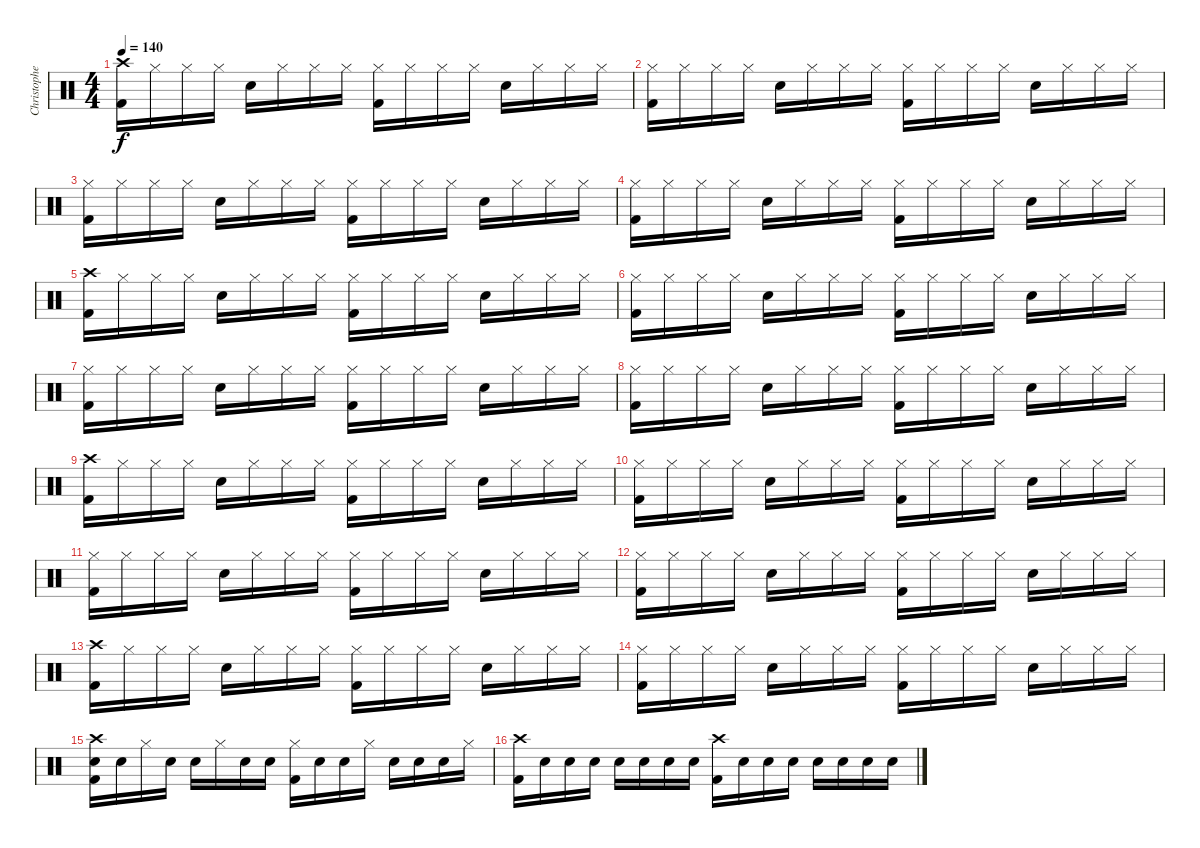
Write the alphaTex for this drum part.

\track ("Christopher Lawrence " "Christophe") {instrument percussion}
\staff {score}
\articulation defaults
\ts (4 4)
\tempo 140
\clef neutral
\ks c
("Crash high (hit)" "Kick (hit) 2").16{dy f} "Hi-Hat (closed)".16 "Hi-Hat (closed)".16 "Hi-Hat (closed)".16 "Snare (hit) 2".16 "Hi-Hat (closed)".16 "Hi-Hat (closed)".16 "Hi-Hat (closed)".16 ("Hi-Hat (closed)" "Kick (hit) 2").16 "Hi-Hat (closed)".16 "Hi-Hat (closed)".16 "Hi-Hat (closed)".16 "Snare (hit) 2".16 "Hi-Hat (closed)".16 "Hi-Hat (closed)".16 "Hi-Hat (closed)".16 |
("Hi-Hat (closed)" "Kick (hit) 2").16 "Hi-Hat (closed)".16 "Hi-Hat (closed)".16 "Hi-Hat (closed)".16 "Snare (hit) 2".16 "Hi-Hat (closed)".16 "Hi-Hat (closed)".16 "Hi-Hat (closed)".16 ("Hi-Hat (closed)" "Kick (hit) 2").16 "Hi-Hat (closed)".16 "Hi-Hat (closed)".16 "Hi-Hat (closed)".16 "Snare (hit) 2".16 "Hi-Hat (closed)".16 "Hi-Hat (closed)".16 "Hi-Hat (closed)".16 |
("Hi-Hat (closed)" "Kick (hit) 2").16 "Hi-Hat (closed)".16 "Hi-Hat (closed)".16 "Hi-Hat (closed)".16 "Snare (hit) 2".16 "Hi-Hat (closed)".16 "Hi-Hat (closed)".16 "Hi-Hat (closed)".16 ("Hi-Hat (closed)" "Kick (hit) 2").16 "Hi-Hat (closed)".16 "Hi-Hat (closed)".16 "Hi-Hat (closed)".16 "Snare (hit) 2".16 "Hi-Hat (closed)".16 "Hi-Hat (closed)".16 "Hi-Hat (closed)".16 |
("Hi-Hat (closed)" "Kick (hit) 2").16 "Hi-Hat (closed)".16 "Hi-Hat (closed)".16 "Hi-Hat (closed)".16 "Snare (hit) 2".16 "Hi-Hat (closed)".16 "Hi-Hat (closed)".16 "Hi-Hat (closed)".16 ("Hi-Hat (closed)" "Kick (hit) 2").16 "Hi-Hat (closed)".16 "Hi-Hat (closed)".16 "Hi-Hat (closed)".16 "Snare (hit) 2".16 "Hi-Hat (closed)".16 "Hi-Hat (closed)".16 "Hi-Hat (closed)".16 |
("Crash high (hit)" "Kick (hit) 2").16 "Hi-Hat (closed)".16 "Hi-Hat (closed)".16 "Hi-Hat (closed)".16 "Snare (hit) 2".16 "Hi-Hat (closed)".16 "Hi-Hat (closed)".16 "Hi-Hat (closed)".16 ("Hi-Hat (closed)" "Kick (hit) 2").16 "Hi-Hat (closed)".16 "Hi-Hat (closed)".16 "Hi-Hat (closed)".16 "Snare (hit) 2".16 "Hi-Hat (closed)".16 "Hi-Hat (closed)".16 "Hi-Hat (closed)".16 |
("Hi-Hat (closed)" "Kick (hit) 2").16 "Hi-Hat (closed)".16 "Hi-Hat (closed)".16 "Hi-Hat (closed)".16 "Snare (hit) 2".16 "Hi-Hat (closed)".16 "Hi-Hat (closed)".16 "Hi-Hat (closed)".16 ("Hi-Hat (closed)" "Kick (hit) 2").16 "Hi-Hat (closed)".16 "Hi-Hat (closed)".16 "Hi-Hat (closed)".16 "Snare (hit) 2".16 "Hi-Hat (closed)".16 "Hi-Hat (closed)".16 "Hi-Hat (closed)".16 |
("Hi-Hat (closed)" "Kick (hit) 2").16 "Hi-Hat (closed)".16 "Hi-Hat (closed)".16 "Hi-Hat (closed)".16 "Snare (hit) 2".16 "Hi-Hat (closed)".16 "Hi-Hat (closed)".16 "Hi-Hat (closed)".16 ("Hi-Hat (closed)" "Kick (hit) 2").16 "Hi-Hat (closed)".16 "Hi-Hat (closed)".16 "Hi-Hat (closed)".16 "Snare (hit) 2".16 "Hi-Hat (closed)".16 "Hi-Hat (closed)".16 "Hi-Hat (closed)".16 |
("Hi-Hat (closed)" "Kick (hit) 2").16 "Hi-Hat (closed)".16 "Hi-Hat (closed)".16 "Hi-Hat (closed)".16 "Snare (hit) 2".16 "Hi-Hat (closed)".16 "Hi-Hat (closed)".16 "Hi-Hat (closed)".16 ("Hi-Hat (closed)" "Kick (hit) 2").16 "Hi-Hat (closed)".16 "Hi-Hat (closed)".16 "Hi-Hat (closed)".16 "Snare (hit) 2".16 "Hi-Hat (closed)".16 "Hi-Hat (closed)".16 "Hi-Hat (closed)".16 |
("Crash high (hit)" "Kick (hit) 2").16 "Hi-Hat (closed)".16 "Hi-Hat (closed)".16 "Hi-Hat (closed)".16 "Snare (hit) 2".16 "Hi-Hat (closed)".16 "Hi-Hat (closed)".16 "Hi-Hat (closed)".16 ("Hi-Hat (closed)" "Kick (hit) 2").16 "Hi-Hat (closed)".16 "Hi-Hat (closed)".16 "Hi-Hat (closed)".16 "Snare (hit) 2".16 "Hi-Hat (closed)".16 "Hi-Hat (closed)".16 "Hi-Hat (closed)".16 |
("Hi-Hat (closed)" "Kick (hit) 2").16 "Hi-Hat (closed)".16 "Hi-Hat (closed)".16 "Hi-Hat (closed)".16 "Snare (hit) 2".16 "Hi-Hat (closed)".16 "Hi-Hat (closed)".16 "Hi-Hat (closed)".16 ("Hi-Hat (closed)" "Kick (hit) 2").16 "Hi-Hat (closed)".16 "Hi-Hat (closed)".16 "Hi-Hat (closed)".16 "Snare (hit) 2".16 "Hi-Hat (closed)".16 "Hi-Hat (closed)".16 "Hi-Hat (closed)".16 |
("Hi-Hat (closed)" "Kick (hit) 2").16 "Hi-Hat (closed)".16 "Hi-Hat (closed)".16 "Hi-Hat (closed)".16 "Snare (hit) 2".16 "Hi-Hat (closed)".16 "Hi-Hat (closed)".16 "Hi-Hat (closed)".16 ("Hi-Hat (closed)" "Kick (hit) 2").16 "Hi-Hat (closed)".16 "Hi-Hat (closed)".16 "Hi-Hat (closed)".16 "Snare (hit) 2".16 "Hi-Hat (closed)".16 "Hi-Hat (closed)".16 "Hi-Hat (closed)".16 |
("Hi-Hat (closed)" "Kick (hit) 2").16 "Hi-Hat (closed)".16 "Hi-Hat (closed)".16 "Hi-Hat (closed)".16 "Snare (hit) 2".16 "Hi-Hat (closed)".16 "Hi-Hat (closed)".16 "Hi-Hat (closed)".16 ("Hi-Hat (closed)" "Kick (hit) 2").16 "Hi-Hat (closed)".16 "Hi-Hat (closed)".16 "Hi-Hat (closed)".16 "Snare (hit) 2".16 "Hi-Hat (closed)".16 "Hi-Hat (closed)".16 "Hi-Hat (closed)".16 |
("Crash high (hit)" "Kick (hit) 2").16 "Hi-Hat (closed)".16 "Hi-Hat (closed)".16 "Hi-Hat (closed)".16 "Snare (hit) 2".16 "Hi-Hat (closed)".16 "Hi-Hat (closed)".16 "Hi-Hat (closed)".16 ("Hi-Hat (closed)" "Kick (hit) 2").16 "Hi-Hat (closed)".16 "Hi-Hat (closed)".16 "Hi-Hat (closed)".16 "Snare (hit) 2".16 "Hi-Hat (closed)".16 "Hi-Hat (closed)".16 "Hi-Hat (closed)".16 |
("Hi-Hat (closed)" "Kick (hit) 2").16 "Hi-Hat (closed)".16 "Hi-Hat (closed)".16 "Hi-Hat (closed)".16 "Snare (hit) 2".16 "Hi-Hat (closed)".16 "Hi-Hat (closed)".16 "Hi-Hat (closed)".16 ("Hi-Hat (closed)" "Kick (hit) 2").16 "Hi-Hat (closed)".16 "Hi-Hat (closed)".16 "Hi-Hat (closed)".16 "Snare (hit) 2".16 "Hi-Hat (closed)".16 "Hi-Hat (closed)".16 "Hi-Hat (closed)".16 |
("Crash high (hit)" "Snare (hit) 2" "Kick (hit) 2").16 "Snare (hit) 2".16 "Hi-Hat (closed)".16 "Snare (hit) 2".16 "Snare (hit) 2".16 "Hi-Hat (closed)".16 "Snare (hit) 2".16 "Snare (hit) 2".16 ("Hi-Hat (closed)" "Kick (hit) 2").16 "Snare (hit) 2".16 "Snare (hit) 2".16 "Hi-Hat (closed)".16 "Snare (hit) 2".16 "Snare (hit) 2".16 "Snare (hit) 2".16 "Hi-Hat (closed)".16 |
("Crash high (hit)" "Kick (hit) 2").16 "Snare (hit) 2".16 "Snare (hit) 2".16 "Snare (hit) 2".16 "Snare (hit) 2".16 "Snare (hit) 2".16 "Snare (hit) 2".16 "Snare (hit) 2".16 ("Crash high (hit)" "Kick (hit) 2").16 "Snare (hit) 2".16 "Snare (hit) 2".16 "Snare (hit) 2".16 "Snare (hit) 2".16 "Snare (hit) 2".16 "Snare (hit) 2".16 "Snare (hit) 2".16
